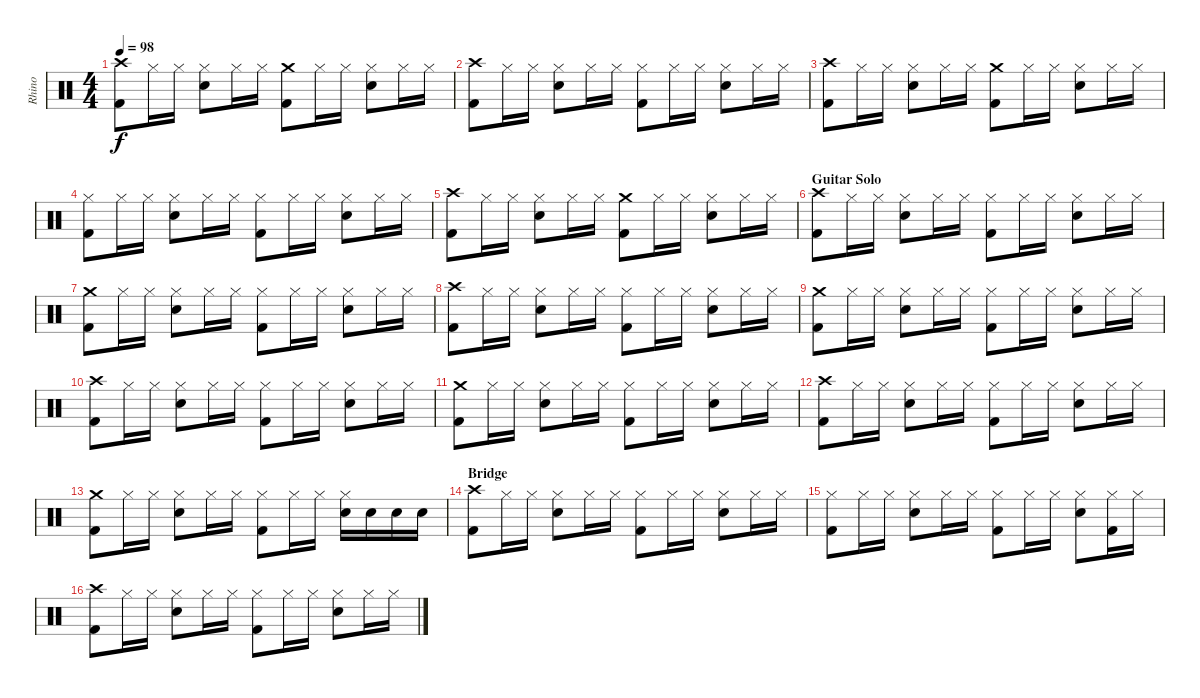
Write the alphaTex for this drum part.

\track ("Rhino" "Rhino") {instrument percussion}
\staff {score}
\articulation defaults
\ts (4 4)
\tempo 98
\clef neutral
\ks c
("Crash high (hit)" "Kick (hit) 2").8{dy f} "Hi-Hat (closed)".16 "Hi-Hat (closed)".16 ("Hi-Hat (closed)" "Snare (hit) 2").8 "Hi-Hat (closed)".16 "Hi-Hat (closed)".16 ("Crash medium (hit)" "Kick (hit) 2").8 "Hi-Hat (closed)".16 "Hi-Hat (closed)".16 ("Hi-Hat (closed)" "Snare (hit) 2").8 "Hi-Hat (closed)".16 "Hi-Hat (closed)".16 |
("Crash high (hit)" "Kick (hit) 2").8 "Hi-Hat (closed)".16 "Hi-Hat (closed)".16 ("Hi-Hat (closed)" "Snare (hit) 2").8 "Hi-Hat (closed)".16 "Hi-Hat (closed)".16 ("Hi-Hat (closed)" "Kick (hit) 2").8 "Hi-Hat (closed)".16 "Hi-Hat (closed)".16 ("Hi-Hat (closed)" "Snare (hit) 2").8 "Hi-Hat (closed)".16 "Hi-Hat (closed)".16 |
("Crash high (hit)" "Kick (hit) 2").8 "Hi-Hat (closed)".16 "Hi-Hat (closed)".16 ("Hi-Hat (closed)" "Snare (hit) 2").8 "Hi-Hat (closed)".16 "Hi-Hat (closed)".16 ("Crash medium (hit)" "Kick (hit) 2").8 "Hi-Hat (closed)".16 "Hi-Hat (closed)".16 ("Hi-Hat (closed)" "Snare (hit) 2").8 "Hi-Hat (closed)".16 "Hi-Hat (closed)".16 |
("Hi-Hat (closed)" "Kick (hit) 2").8 "Hi-Hat (closed)".16 "Hi-Hat (closed)".16 ("Hi-Hat (closed)" "Snare (hit) 2").8 "Hi-Hat (closed)".16 "Hi-Hat (closed)".16 ("Hi-Hat (closed)" "Kick (hit) 2").8 "Hi-Hat (closed)".16 "Hi-Hat (closed)".16 ("Hi-Hat (closed)" "Snare (hit) 2").8 "Hi-Hat (closed)".16 "Hi-Hat (closed)".16 |
("Crash high (hit)" "Kick (hit) 2").8 "Hi-Hat (closed)".16 "Hi-Hat (closed)".16 ("Hi-Hat (closed)" "Snare (hit) 2").8 "Hi-Hat (closed)".16 "Hi-Hat (closed)".16 ("Crash medium (hit)" "Kick (hit) 2").8 "Hi-Hat (closed)".16 "Hi-Hat (closed)".16 ("Hi-Hat (closed)" "Snare (hit) 2").8 "Hi-Hat (closed)".16 "Hi-Hat (closed)".16 |
\section ("" "Guitar Solo")
("Crash high (hit)" "Kick (hit) 2").8 "Hi-Hat (closed)".16 "Hi-Hat (closed)".16 ("Hi-Hat (closed)" "Snare (hit) 2").8 "Hi-Hat (closed)".16 "Hi-Hat (closed)".16 ("Hi-Hat (closed)" "Kick (hit) 2").8 "Hi-Hat (closed)".16 "Hi-Hat (closed)".16 ("Hi-Hat (closed)" "Snare (hit) 2").8 "Hi-Hat (closed)".16 "Hi-Hat (closed)".16 |
("Crash medium (hit)" "Kick (hit) 2").8 "Hi-Hat (closed)".16 "Hi-Hat (closed)".16 ("Hi-Hat (closed)" "Snare (hit) 2").8 "Hi-Hat (closed)".16 "Hi-Hat (closed)".16 ("Hi-Hat (closed)" "Kick (hit) 2").8 "Hi-Hat (closed)".16 "Hi-Hat (closed)".16 ("Hi-Hat (closed)" "Snare (hit) 2").8 "Hi-Hat (closed)".16 "Hi-Hat (closed)".16 |
("Crash high (hit)" "Kick (hit) 2").8 "Hi-Hat (closed)".16 "Hi-Hat (closed)".16 ("Hi-Hat (closed)" "Snare (hit) 2").8 "Hi-Hat (closed)".16 "Hi-Hat (closed)".16 ("Hi-Hat (closed)" "Kick (hit) 2").8 "Hi-Hat (closed)".16 "Hi-Hat (closed)".16 ("Hi-Hat (closed)" "Snare (hit) 2").8 "Hi-Hat (closed)".16 "Hi-Hat (closed)".16 |
("Crash medium (hit)" "Kick (hit) 2").8 "Hi-Hat (closed)".16 "Hi-Hat (closed)".16 ("Hi-Hat (closed)" "Snare (hit) 2").8 "Hi-Hat (closed)".16 "Hi-Hat (closed)".16 ("Hi-Hat (closed)" "Kick (hit) 2").8 "Hi-Hat (closed)".16 "Hi-Hat (closed)".16 ("Hi-Hat (closed)" "Snare (hit) 2").8 "Hi-Hat (closed)".16 "Hi-Hat (closed)".16 |
("Crash high (hit)" "Kick (hit) 2").8 "Hi-Hat (closed)".16 "Hi-Hat (closed)".16 ("Hi-Hat (closed)" "Snare (hit) 2").8 "Hi-Hat (closed)".16 "Hi-Hat (closed)".16 ("Hi-Hat (closed)" "Kick (hit) 2").8 "Hi-Hat (closed)".16 "Hi-Hat (closed)".16 ("Hi-Hat (closed)" "Snare (hit) 2").8 "Hi-Hat (closed)".16 "Hi-Hat (closed)".16 |
("Crash medium (hit)" "Kick (hit) 2").8 "Hi-Hat (closed)".16 "Hi-Hat (closed)".16 ("Hi-Hat (closed)" "Snare (hit) 2").8 "Hi-Hat (closed)".16 "Hi-Hat (closed)".16 ("Hi-Hat (closed)" "Kick (hit) 2").8 "Hi-Hat (closed)".16 "Hi-Hat (closed)".16 ("Hi-Hat (closed)" "Snare (hit) 2").8 "Hi-Hat (closed)".16 "Hi-Hat (closed)".16 |
("Crash high (hit)" "Kick (hit) 2").8 "Hi-Hat (closed)".16 "Hi-Hat (closed)".16 ("Hi-Hat (closed)" "Snare (hit) 2").8 "Hi-Hat (closed)".16 "Hi-Hat (closed)".16 ("Hi-Hat (closed)" "Kick (hit) 2").8 "Hi-Hat (closed)".16 "Hi-Hat (closed)".16 ("Hi-Hat (closed)" "Snare (hit) 2").8 "Hi-Hat (closed)".16 "Hi-Hat (closed)".16 |
("Crash medium (hit)" "Kick (hit) 2").8 "Hi-Hat (closed)".16 "Hi-Hat (closed)".16 ("Hi-Hat (closed)" "Snare (hit) 2").8 "Hi-Hat (closed)".16 "Hi-Hat (closed)".16 ("Hi-Hat (closed)" "Kick (hit) 2").8 "Hi-Hat (closed)".16 "Hi-Hat (closed)".16 ("Hi-Hat (closed)" "Snare (hit) 2").16 "Snare (hit) 2".16 "Snare (hit) 2".16 "Snare (hit) 2".16 |
\section ("" "Bridge")
("Crash high (hit)" "Kick (hit) 2").8 "Hi-Hat (closed)".16 "Hi-Hat (closed)".16 ("Hi-Hat (closed)" "Snare (hit) 2").8 "Hi-Hat (closed)".16 "Hi-Hat (closed)".16 ("Hi-Hat (closed)" "Kick (hit) 2").8 "Hi-Hat (closed)".16 "Hi-Hat (closed)".16 ("Hi-Hat (closed)" "Snare (hit) 2").8 "Hi-Hat (closed)".16 "Hi-Hat (closed)".16 |
("Hi-Hat (closed)" "Kick (hit) 2").8 "Hi-Hat (closed)".16 "Hi-Hat (closed)".16 ("Hi-Hat (closed)" "Snare (hit) 2").8 "Hi-Hat (closed)".16 "Hi-Hat (closed)".16 ("Hi-Hat (closed)" "Kick (hit) 2").8 "Hi-Hat (closed)".16 "Hi-Hat (closed)".16 ("Hi-Hat (closed)" "Snare (hit) 2").8 ("Hi-Hat (closed)" "Kick (hit) 2").16 "Hi-Hat (closed)".16 |
("Crash high (hit)" "Kick (hit) 2").8 "Hi-Hat (closed)".16 "Hi-Hat (closed)".16 ("Hi-Hat (closed)" "Snare (hit) 2").8 "Hi-Hat (closed)".16 "Hi-Hat (closed)".16 ("Hi-Hat (closed)" "Kick (hit) 2").8 "Hi-Hat (closed)".16 "Hi-Hat (closed)".16 ("Hi-Hat (closed)" "Snare (hit) 2").8 "Hi-Hat (closed)".16 "Hi-Hat (closed)".16
